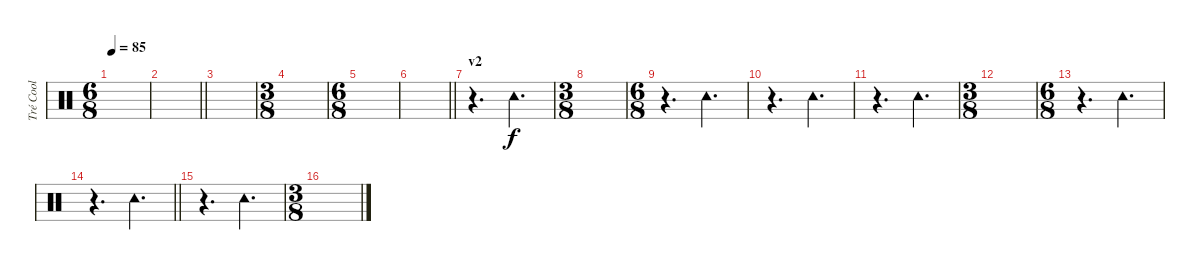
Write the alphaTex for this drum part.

\track ("Tré Cool" "Tré Cool") {instrument percussion}
\staff {score}
\articulation defaults
\ts (6 8)
\tempo 85
\clef neutral
\ks c
|
\barLineRight lightlight
|
|
\ts (3 8)
|
\ts (6 8)
|
\barLineRight lightlight
|
\section ("" "v2")
r.4{d} "Tambourine (hit)".4{d} |
\ts (3 8)
|
\ts (6 8)
r.4{d} "Tambourine (hit)".4{d} |
r.4{d} "Tambourine (hit)".4{d} |
r.4{d} "Tambourine (hit)".4{d} |
\ts (3 8)
|
\ts (6 8)
r.4{d} "Tambourine (hit)".4{d} |
\barLineRight lightlight
r.4{d} "Tambourine (hit)".4{d} |
r.4{d} "Tambourine (hit)".4{d} |
\ts (3 8)
